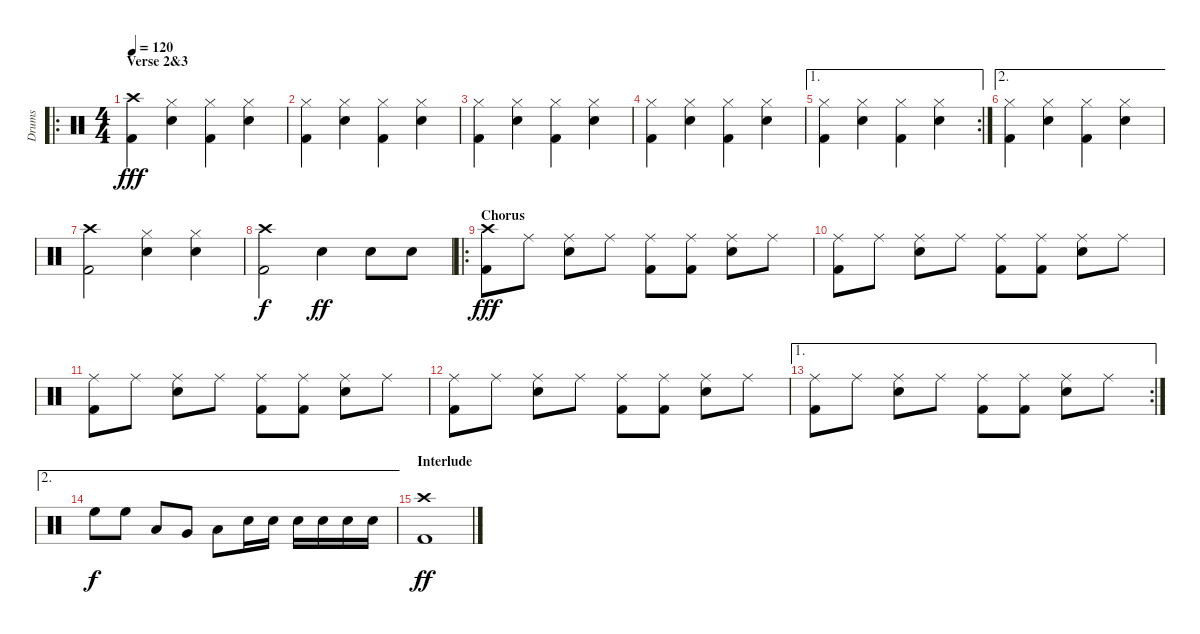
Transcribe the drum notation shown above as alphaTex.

\track ("Drums" "Drums") {instrument percussion}
\staff {score}
\articulation defaults
\ro
\ts (4 4)
\section ("" "Verse 2&3")
\tempo 120
\clef neutral
\ks c
("Crash high (hit)" "Kick (hit) 2").4{dy fff} ("Hi-Hat (closed)" "Electric Snare (hit)").4 ("Hi-Hat (closed)" "Kick (hit) 2").4 ("Hi-Hat (closed)" "Electric Snare (hit)").4 |
("Hi-Hat (closed)" "Kick (hit) 2").4 ("Hi-Hat (closed)" "Electric Snare (hit)").4 ("Hi-Hat (closed)" "Kick (hit) 2").4 ("Hi-Hat (closed)" "Electric Snare (hit)").4 |
("Hi-Hat (closed)" "Kick (hit) 2").4 ("Hi-Hat (closed)" "Electric Snare (hit)").4 ("Hi-Hat (closed)" "Kick (hit) 2").4 ("Hi-Hat (closed)" "Electric Snare (hit)").4 |
("Hi-Hat (closed)" "Kick (hit) 2").4 ("Hi-Hat (closed)" "Electric Snare (hit)").4 ("Hi-Hat (closed)" "Kick (hit) 2").4 ("Hi-Hat (closed)" "Electric Snare (hit)").4 |
\ae 1
\rc 2
("Hi-Hat (closed)" "Kick (hit) 2").4 ("Hi-Hat (closed)" "Electric Snare (hit)").4 ("Hi-Hat (closed)" "Kick (hit) 2").4 ("Hi-Hat (closed)" "Electric Snare (hit)").4 |
\ae 2
("Hi-Hat (closed)" "Kick (hit) 2").4 ("Hi-Hat (closed)" "Electric Snare (hit)").4 ("Hi-Hat (closed)" "Kick (hit) 2").4 ("Hi-Hat (closed)" "Electric Snare (hit)").4 |
("Crash high (hit)" "Kick (hit) 2").2 ("Hi-Hat (closed)" "Electric Snare (hit)").4 ("Hi-Hat (closed)" "Electric Snare (hit)").4 |
("Crash high (hit)" "Kick (hit) 2").2{dy f} "Electric Snare (hit)".4{dy ff} "Electric Snare (hit)".8 "Electric Snare (hit)".8 |
\ro
\section ("" "Chorus")
("Crash high (hit)" "Kick (hit) 2").8{dy fff} "Ride (middle)".8 ("Ride (middle)" "Electric Snare (hit)").8 "Ride (middle)".8 ("Ride (middle)" "Kick (hit) 2").8 ("Ride (middle)" "Kick (hit) 2").8 ("Ride (middle)" "Electric Snare (hit)").8 "Ride (middle)".8 |
("Ride (middle)" "Kick (hit) 2").8 "Ride (middle)".8 ("Ride (middle)" "Electric Snare (hit)").8 "Ride (middle)".8 ("Ride (middle)" "Kick (hit) 2").8 ("Ride (middle)" "Kick (hit) 2").8 ("Ride (middle)" "Electric Snare (hit)").8 "Ride (middle)".8 |
("Ride (middle)" "Kick (hit) 2").8 "Ride (middle)".8 ("Ride (middle)" "Electric Snare (hit)").8 "Ride (middle)".8 ("Ride (middle)" "Kick (hit) 2").8 ("Ride (middle)" "Kick (hit) 2").8 ("Ride (middle)" "Electric Snare (hit)").8 "Ride (middle)".8 |
("Ride (middle)" "Kick (hit) 2").8 "Ride (middle)".8 ("Ride (middle)" "Electric Snare (hit)").8 "Ride (middle)".8 ("Ride (middle)" "Kick (hit) 2").8 ("Ride (middle)" "Kick (hit) 2").8 ("Ride (middle)" "Electric Snare (hit)").8 "Ride (middle)".8 |
\ae 1
\rc 2
("Ride (middle)" "Kick (hit) 2").8 "Ride (middle)".8 ("Ride (middle)" "Electric Snare (hit)").8 "Ride (middle)".8 ("Ride (middle)" "Kick (hit) 2").8 ("Ride (middle)" "Kick (hit) 2").8 ("Ride (middle)" "Electric Snare (hit)").8 "Ride (middle)".8 |
\ae 2 "High Floor Tom (hit)".8{dy f} "High Floor Tom (hit)".8 "Low Tom (hit)".8 "Very Low Tom (hit)".8 "Low Floor Tom (hit)".8 "Electric Snare (hit)".16 "Electric Snare (hit)".16 "Electric Snare (hit)".16 "Electric Snare (hit)".16 "Electric Snare (hit)".16 "Electric Snare (hit)".16
|
\section ("" "Interlude")
("Crash high (hit)" "Kick (hit) 2").1{dy ff}
